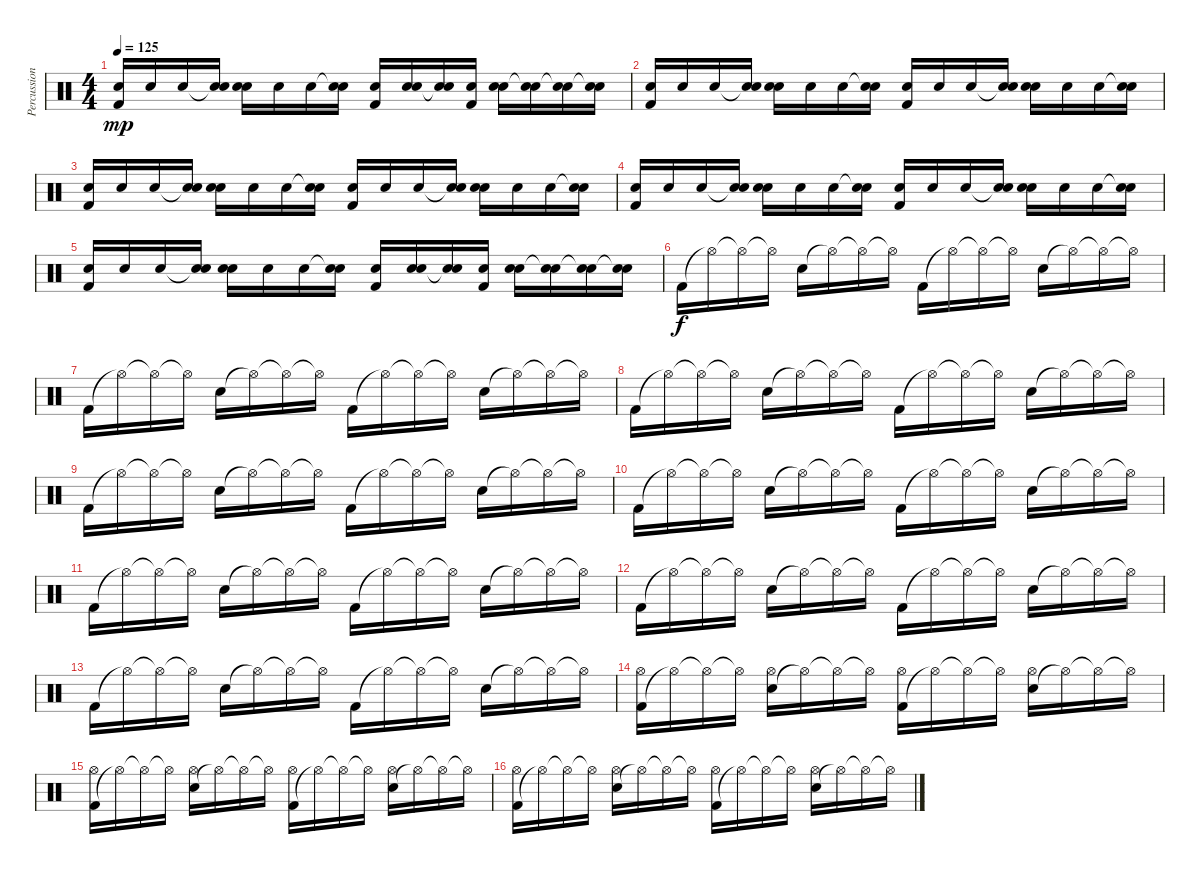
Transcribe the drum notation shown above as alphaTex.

\track ("Percussions" "Percussion") {instrument percussion}
\staff {score}
\articulation defaults
\ts (4 4)
\tempo 125
\clef neutral
\ks c
("Kick (hit) 2" "Electric Snare (hit)").16{dy mp} "Electric Snare (hit)".16 "Electric Snare (hit)".16 ("Snare (hit)"{t} "Electric Snare (hit)").16 ("Electric Snare (hit)" "Electric Snare (hit)").16 "Electric Snare (hit)".16 "Electric Snare (hit)".16 ("Snare (hit)"{t} "Electric Snare (hit)").16 ("Kick (hit) 2" "Electric Snare (hit)").16 ("Electric Snare (hit)" "Electric Snare (hit)").16 ("Electric Snare (hit)"{t} "Electric Snare (hit)").16 ("Kick (hit) 2" "Electric Snare (hit)").16 ("Electric Snare (hit)" "Electric Snare (hit)").16 ("Electric Snare (hit)"{t} "Electric Snare (hit)").16 ("Electric Snare (hit)"{t} "Electric Snare (hit)").16 ("Snare (hit)"{t} "Electric Snare (hit)").16 |
("Kick (hit) 2" "Electric Snare (hit)").16 "Electric Snare (hit)".16 "Electric Snare (hit)".16 ("Snare (hit)"{t} "Electric Snare (hit)").16 ("Electric Snare (hit)" "Electric Snare (hit)").16 "Electric Snare (hit)".16 "Electric Snare (hit)".16 ("Snare (hit)"{t} "Electric Snare (hit)").16 ("Kick (hit) 2" "Electric Snare (hit)").16 "Electric Snare (hit)".16 "Electric Snare (hit)".16 ("Snare (hit)"{t} "Electric Snare (hit)").16 ("Electric Snare (hit)" "Electric Snare (hit)").16 "Electric Snare (hit)".16 "Electric Snare (hit)".16 ("Snare (hit)"{t} "Electric Snare (hit)").16 |
("Kick (hit) 2" "Electric Snare (hit)").16 "Electric Snare (hit)".16 "Electric Snare (hit)".16 ("Snare (hit)"{t} "Electric Snare (hit)").16 ("Electric Snare (hit)" "Electric Snare (hit)").16 "Electric Snare (hit)".16 "Electric Snare (hit)".16 ("Snare (hit)"{t} "Electric Snare (hit)").16 ("Kick (hit) 2" "Electric Snare (hit)").16 "Electric Snare (hit)".16 "Electric Snare (hit)".16 ("Snare (hit)"{t} "Electric Snare (hit)").16 ("Electric Snare (hit)" "Electric Snare (hit)").16 "Electric Snare (hit)".16 "Electric Snare (hit)".16 ("Snare (hit)"{t} "Electric Snare (hit)").16 |
("Kick (hit) 2" "Electric Snare (hit)").16 "Electric Snare (hit)".16 "Electric Snare (hit)".16 ("Snare (hit)"{t} "Electric Snare (hit)").16 ("Electric Snare (hit)" "Electric Snare (hit)").16 "Electric Snare (hit)".16 "Electric Snare (hit)".16 ("Snare (hit)"{t} "Electric Snare (hit)").16 ("Kick (hit) 2" "Electric Snare (hit)").16 "Electric Snare (hit)".16 "Electric Snare (hit)".16 ("Snare (hit)"{t} "Electric Snare (hit)").16 ("Electric Snare (hit)" "Electric Snare (hit)").16 "Electric Snare (hit)".16 "Electric Snare (hit)".16 ("Snare (hit)"{t} "Electric Snare (hit)").16 |
("Kick (hit) 2" "Electric Snare (hit)").16 "Electric Snare (hit)".16 "Electric Snare (hit)".16 ("Snare (hit)"{t} "Electric Snare (hit)").16 ("Electric Snare (hit)" "Electric Snare (hit)").16 "Electric Snare (hit)".16 "Electric Snare (hit)".16 ("Snare (hit)"{t} "Electric Snare (hit)").16 ("Kick (hit) 2" "Electric Snare (hit)").16 ("Electric Snare (hit)" "Electric Snare (hit)").16 ("Electric Snare (hit)"{t} "Electric Snare (hit)").16 ("Kick (hit) 2" "Electric Snare (hit)").16 ("Electric Snare (hit)" "Electric Snare (hit)").16 ("Electric Snare (hit)"{t} "Electric Snare (hit)").16 ("Electric Snare (hit)"{t} "Electric Snare (hit)").16 ("Snare (hit)"{t} "Electric Snare (hit)").16 |
"Kick (hit) 2".16{dy f} "Hi-Hat (open)"{t}.16 "Hi-Hat (open)"{t}.16 "Hi-Hat (open)"{t}.16 "Electric Snare (hit)".16 "Hi-Hat (open)"{t}.16 "Hi-Hat (open)"{t}.16 "Hi-Hat (open)"{t}.16 "Kick (hit) 2".16 "Hi-Hat (open)"{t}.16 "Hi-Hat (open)"{t}.16 "Hi-Hat (open)"{t}.16 "Electric Snare (hit)".16 "Hi-Hat (open)"{t}.16 "Hi-Hat (open)"{t}.16 "Hi-Hat (open)"{t}.16 |
"Kick (hit) 2".16 "Hi-Hat (open)"{t}.16 "Hi-Hat (open)"{t}.16 "Hi-Hat (open)"{t}.16 "Electric Snare (hit)".16 "Hi-Hat (open)"{t}.16 "Hi-Hat (open)"{t}.16 "Hi-Hat (open)"{t}.16 "Kick (hit) 2".16 "Hi-Hat (open)"{t}.16 "Hi-Hat (open)"{t}.16 "Hi-Hat (open)"{t}.16 "Electric Snare (hit)".16 "Hi-Hat (open)"{t}.16 "Hi-Hat (open)"{t}.16 "Hi-Hat (open)"{t}.16 |
"Kick (hit) 2".16 "Hi-Hat (open)"{t}.16 "Hi-Hat (open)"{t}.16 "Hi-Hat (open)"{t}.16 "Electric Snare (hit)".16 "Hi-Hat (open)"{t}.16 "Hi-Hat (open)"{t}.16 "Hi-Hat (open)"{t}.16 "Kick (hit) 2".16 "Hi-Hat (open)"{t}.16 "Hi-Hat (open)"{t}.16 "Hi-Hat (open)"{t}.16 "Electric Snare (hit)".16 "Hi-Hat (open)"{t}.16 "Hi-Hat (open)"{t}.16 "Hi-Hat (open)"{t}.16 |
"Kick (hit) 2".16 "Hi-Hat (open)"{t}.16 "Hi-Hat (open)"{t}.16 "Hi-Hat (open)"{t}.16 "Electric Snare (hit)".16 "Hi-Hat (open)"{t}.16 "Hi-Hat (open)"{t}.16 "Hi-Hat (open)"{t}.16 "Kick (hit) 2".16 "Hi-Hat (open)"{t}.16 "Hi-Hat (open)"{t}.16 "Hi-Hat (open)"{t}.16 "Electric Snare (hit)".16 "Hi-Hat (open)"{t}.16 "Hi-Hat (open)"{t}.16 "Hi-Hat (open)"{t}.16 |
"Kick (hit) 2".16 "Hi-Hat (open)"{t}.16 "Hi-Hat (open)"{t}.16 "Hi-Hat (open)"{t}.16 "Electric Snare (hit)".16 "Hi-Hat (open)"{t}.16 "Hi-Hat (open)"{t}.16 "Hi-Hat (open)"{t}.16 "Kick (hit) 2".16 "Hi-Hat (open)"{t}.16 "Hi-Hat (open)"{t}.16 "Hi-Hat (open)"{t}.16 "Electric Snare (hit)".16 "Hi-Hat (open)"{t}.16 "Hi-Hat (open)"{t}.16 "Hi-Hat (open)"{t}.16 |
"Kick (hit) 2".16 "Hi-Hat (open)"{t}.16 "Hi-Hat (open)"{t}.16 "Hi-Hat (open)"{t}.16 "Electric Snare (hit)".16 "Hi-Hat (open)"{t}.16 "Hi-Hat (open)"{t}.16 "Hi-Hat (open)"{t}.16 "Kick (hit) 2".16 "Hi-Hat (open)"{t}.16 "Hi-Hat (open)"{t}.16 "Hi-Hat (open)"{t}.16 "Electric Snare (hit)".16 "Hi-Hat (open)"{t}.16 "Hi-Hat (open)"{t}.16 "Hi-Hat (open)"{t}.16 |
"Kick (hit) 2".16 "Hi-Hat (open)"{t}.16 "Hi-Hat (open)"{t}.16 "Hi-Hat (open)"{t}.16 "Electric Snare (hit)".16 "Hi-Hat (open)"{t}.16 "Hi-Hat (open)"{t}.16 "Hi-Hat (open)"{t}.16 "Kick (hit) 2".16 "Hi-Hat (open)"{t}.16 "Hi-Hat (open)"{t}.16 "Hi-Hat (open)"{t}.16 "Electric Snare (hit)".16 "Hi-Hat (open)"{t}.16 "Hi-Hat (open)"{t}.16 "Hi-Hat (open)"{t}.16 |
"Kick (hit) 2".16 "Hi-Hat (open)"{t}.16 "Hi-Hat (open)"{t}.16 "Hi-Hat (open)"{t}.16 "Electric Snare (hit)".16 "Hi-Hat (open)"{t}.16 "Hi-Hat (open)"{t}.16 "Hi-Hat (open)"{t}.16 "Kick (hit) 2".16 "Hi-Hat (open)"{t}.16 "Hi-Hat (open)"{t}.16 "Hi-Hat (open)"{t}.16 "Electric Snare (hit)".16 "Hi-Hat (open)"{t}.16 "Hi-Hat (open)"{t}.16 "Hi-Hat (open)"{t}.16 |
("Kick (hit) 2" "Hi-Hat (open)").16 "Hi-Hat (open)"{t}.16 "Hi-Hat (open)"{t}.16 "Hi-Hat (open)"{t}.16 ("Electric Snare (hit)" "Hi-Hat (open)").16 "Hi-Hat (open)"{t}.16 "Hi-Hat (open)"{t}.16 "Hi-Hat (open)"{t}.16 ("Kick (hit) 2" "Hi-Hat (open)").16 "Hi-Hat (open)"{t}.16 "Hi-Hat (open)"{t}.16 "Hi-Hat (open)"{t}.16 ("Electric Snare (hit)" "Hi-Hat (open)").16 "Hi-Hat (open)"{t}.16 "Hi-Hat (open)"{t}.16 "Hi-Hat (open)"{t}.16 |
("Kick (hit) 2" "Hi-Hat (open)").16 "Hi-Hat (open)"{t}.16 "Hi-Hat (open)"{t}.16 "Hi-Hat (open)"{t}.16 ("Electric Snare (hit)" "Hi-Hat (open)").16 "Hi-Hat (open)"{t}.16 "Hi-Hat (open)"{t}.16 "Hi-Hat (open)"{t}.16 ("Kick (hit) 2" "Hi-Hat (open)").16 "Hi-Hat (open)"{t}.16 "Hi-Hat (open)"{t}.16 "Hi-Hat (open)"{t}.16 ("Electric Snare (hit)" "Hi-Hat (open)").16 "Hi-Hat (open)"{t}.16 "Hi-Hat (open)"{t}.16 "Hi-Hat (open)"{t}.16 |
("Kick (hit) 2" "Hi-Hat (open)").16 "Hi-Hat (open)"{t}.16 "Hi-Hat (open)"{t}.16 "Hi-Hat (open)"{t}.16 ("Electric Snare (hit)" "Hi-Hat (open)").16 "Hi-Hat (open)"{t}.16 "Hi-Hat (open)"{t}.16 "Hi-Hat (open)"{t}.16 ("Kick (hit) 2" "Hi-Hat (open)").16 "Hi-Hat (open)"{t}.16 "Hi-Hat (open)"{t}.16 "Hi-Hat (open)"{t}.16 ("Electric Snare (hit)" "Hi-Hat (open)").16 "Hi-Hat (open)"{t}.16 "Hi-Hat (open)"{t}.16 "Hi-Hat (open)"{t}.16
